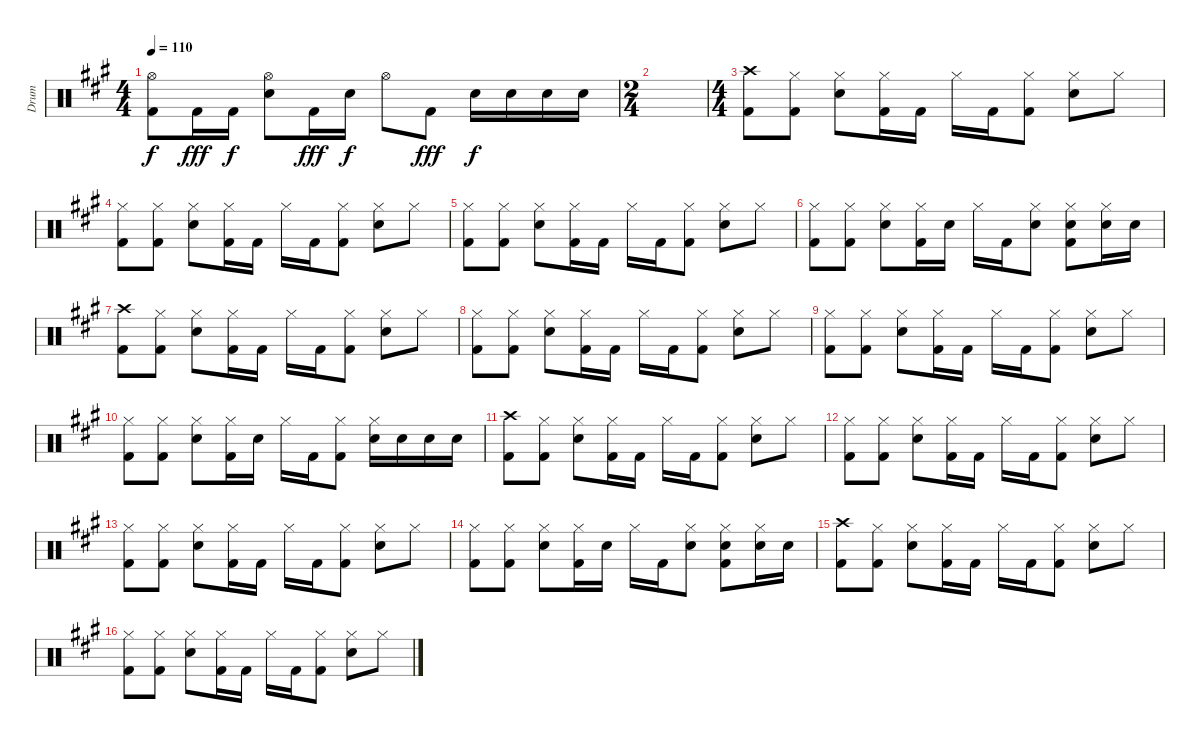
\track ("Drum" "Drum") {instrument percussion}
\staff {score}
\articulation defaults
\ts (4 4)
\tempo 110
\clef neutral
\ks f#minor
("Hi-Hat (open)" "Kick (hit) 2").8{dy f} "Kick (hit) 2".16{dy fff} "Kick (hit) 2".16{dy f} ("Hi-Hat (open)" "Electric Snare (hit)").8 "Kick (hit) 2".16{dy fff} "Electric Snare (hit)".16{dy f} "Hi-Hat (open)".8 "Kick (hit) 2".8{dy fff} "Electric Snare (hit)".16{dy f} "Electric Snare (hit)".16 "Electric Snare (hit)".16 "Electric Snare (hit)".16 |
\ts (2 4)
|
\ts (4 4)
\ks a
("Crash high (hit)" "Kick (hit) 2").8 ("Hi-Hat (closed)" "Kick (hit) 2").8 ("Hi-Hat (closed)" "Electric Snare (hit)").8 ("Hi-Hat (closed)" "Kick (hit) 2").16 "Kick (hit) 2".16 "Hi-Hat (closed)".16 "Kick (hit) 2".16 ("Hi-Hat (closed)" "Kick (hit) 2").8 ("Hi-Hat (closed)" "Electric Snare (hit)").8 "Hi-Hat (closed)".8 |
("Hi-Hat (closed)" "Kick (hit) 2").8 ("Hi-Hat (closed)" "Kick (hit) 2").8 ("Hi-Hat (closed)" "Electric Snare (hit)").8 ("Hi-Hat (closed)" "Kick (hit) 2").16 "Kick (hit) 2".16 "Hi-Hat (closed)".16 "Kick (hit) 2".16 ("Hi-Hat (closed)" "Kick (hit) 2").8 ("Hi-Hat (closed)" "Electric Snare (hit)").8 "Hi-Hat (closed)".8 |
("Hi-Hat (closed)" "Kick (hit) 2").8 ("Hi-Hat (closed)" "Kick (hit) 2").8 ("Hi-Hat (closed)" "Electric Snare (hit)").8 ("Hi-Hat (closed)" "Kick (hit) 2").16 "Kick (hit) 2".16 "Hi-Hat (closed)".16 "Kick (hit) 2".16 ("Hi-Hat (closed)" "Kick (hit) 2").8 ("Hi-Hat (closed)" "Electric Snare (hit)").8 "Hi-Hat (closed)".8 |
("Hi-Hat (closed)" "Kick (hit) 2").8 ("Hi-Hat (closed)" "Kick (hit) 2").8 ("Hi-Hat (closed)" "Electric Snare (hit)").8 ("Hi-Hat (closed)" "Kick (hit) 2").16 "Electric Snare (hit)".16 "Hi-Hat (closed)".16 "Kick (hit) 2".16 ("Hi-Hat (closed)" "Electric Snare (hit)").8 ("Hi-Hat (closed)" "Electric Snare (hit)" "Kick (hit) 2").8 ("Hi-Hat (closed)" "Electric Snare (hit)").16 "Electric Snare (hit)".16 |
("Crash high (hit)" "Kick (hit) 2").8 ("Hi-Hat (closed)" "Kick (hit) 2").8 ("Hi-Hat (closed)" "Electric Snare (hit)").8 ("Hi-Hat (closed)" "Kick (hit) 2").16 "Kick (hit) 2".16 "Hi-Hat (closed)".16 "Kick (hit) 2".16 ("Hi-Hat (closed)" "Kick (hit) 2").8 ("Hi-Hat (closed)" "Electric Snare (hit)").8 "Hi-Hat (closed)".8 |
("Hi-Hat (closed)" "Kick (hit) 2").8 ("Hi-Hat (closed)" "Kick (hit) 2").8 ("Hi-Hat (closed)" "Electric Snare (hit)").8 ("Hi-Hat (closed)" "Kick (hit) 2").16 "Kick (hit) 2".16 "Hi-Hat (closed)".16 "Kick (hit) 2".16 ("Hi-Hat (closed)" "Kick (hit) 2").8 ("Hi-Hat (closed)" "Electric Snare (hit)").8 "Hi-Hat (closed)".8 |
("Hi-Hat (closed)" "Kick (hit) 2").8 ("Hi-Hat (closed)" "Kick (hit) 2").8 ("Hi-Hat (closed)" "Electric Snare (hit)").8 ("Hi-Hat (closed)" "Kick (hit) 2").16 "Kick (hit) 2".16 "Hi-Hat (closed)".16 "Kick (hit) 2".16 ("Hi-Hat (closed)" "Kick (hit) 2").8 ("Hi-Hat (closed)" "Electric Snare (hit)").8 "Hi-Hat (closed)".8 |
("Hi-Hat (closed)" "Kick (hit) 2").8 ("Hi-Hat (closed)" "Kick (hit) 2").8 ("Hi-Hat (closed)" "Electric Snare (hit)").8 ("Hi-Hat (closed)" "Kick (hit) 2").16 "Electric Snare (hit)".16 "Hi-Hat (closed)".16 "Kick (hit) 2".16 ("Hi-Hat (closed)" "Kick (hit) 2").8 ("Hi-Hat (closed)" "Electric Snare (hit)").16 "Electric Snare (hit)".16 "Electric Snare (hit)".16 "Electric Snare (hit)".16 |
("Crash high (hit)" "Kick (hit) 2").8 ("Hi-Hat (closed)" "Kick (hit) 2").8 ("Hi-Hat (closed)" "Electric Snare (hit)").8 ("Hi-Hat (closed)" "Kick (hit) 2").16 "Kick (hit) 2".16 "Hi-Hat (closed)".16 "Kick (hit) 2".16 ("Hi-Hat (closed)" "Kick (hit) 2").8 ("Hi-Hat (closed)" "Electric Snare (hit)").8 "Hi-Hat (closed)".8 |
("Hi-Hat (closed)" "Kick (hit) 2").8 ("Hi-Hat (closed)" "Kick (hit) 2").8 ("Hi-Hat (closed)" "Electric Snare (hit)").8 ("Hi-Hat (closed)" "Kick (hit) 2").16 "Kick (hit) 2".16 "Hi-Hat (closed)".16 "Kick (hit) 2".16 ("Hi-Hat (closed)" "Kick (hit) 2").8 ("Hi-Hat (closed)" "Electric Snare (hit)").8 "Hi-Hat (closed)".8 |
("Hi-Hat (closed)" "Kick (hit) 2").8 ("Hi-Hat (closed)" "Kick (hit) 2").8 ("Hi-Hat (closed)" "Electric Snare (hit)").8 ("Hi-Hat (closed)" "Kick (hit) 2").16 "Kick (hit) 2".16 "Hi-Hat (closed)".16 "Kick (hit) 2".16 ("Hi-Hat (closed)" "Kick (hit) 2").8 ("Hi-Hat (closed)" "Electric Snare (hit)").8 "Hi-Hat (closed)".8 |
("Hi-Hat (closed)" "Kick (hit) 2").8 ("Hi-Hat (closed)" "Kick (hit) 2").8 ("Hi-Hat (closed)" "Electric Snare (hit)").8 ("Hi-Hat (closed)" "Kick (hit) 2").16 "Electric Snare (hit)".16 "Hi-Hat (closed)".16 "Kick (hit) 2".16 ("Hi-Hat (closed)" "Electric Snare (hit)").8 ("Hi-Hat (closed)" "Electric Snare (hit)" "Kick (hit) 2").8 ("Hi-Hat (closed)" "Electric Snare (hit)").16 "Electric Snare (hit)".16 |
("Crash high (hit)" "Kick (hit) 2").8 ("Hi-Hat (closed)" "Kick (hit) 2").8 ("Hi-Hat (closed)" "Electric Snare (hit)").8 ("Hi-Hat (closed)" "Kick (hit) 2").16 "Kick (hit) 2".16 "Hi-Hat (closed)".16 "Kick (hit) 2".16 ("Hi-Hat (closed)" "Kick (hit) 2").8 ("Hi-Hat (closed)" "Electric Snare (hit)").8 "Hi-Hat (closed)".8 |
("Hi-Hat (closed)" "Kick (hit) 2").8 ("Hi-Hat (closed)" "Kick (hit) 2").8 ("Hi-Hat (closed)" "Electric Snare (hit)").8 ("Hi-Hat (closed)" "Kick (hit) 2").16 "Kick (hit) 2".16 "Hi-Hat (closed)".16 "Kick (hit) 2".16 ("Hi-Hat (closed)" "Kick (hit) 2").8 ("Hi-Hat (closed)" "Electric Snare (hit)").8 "Hi-Hat (closed)".8
